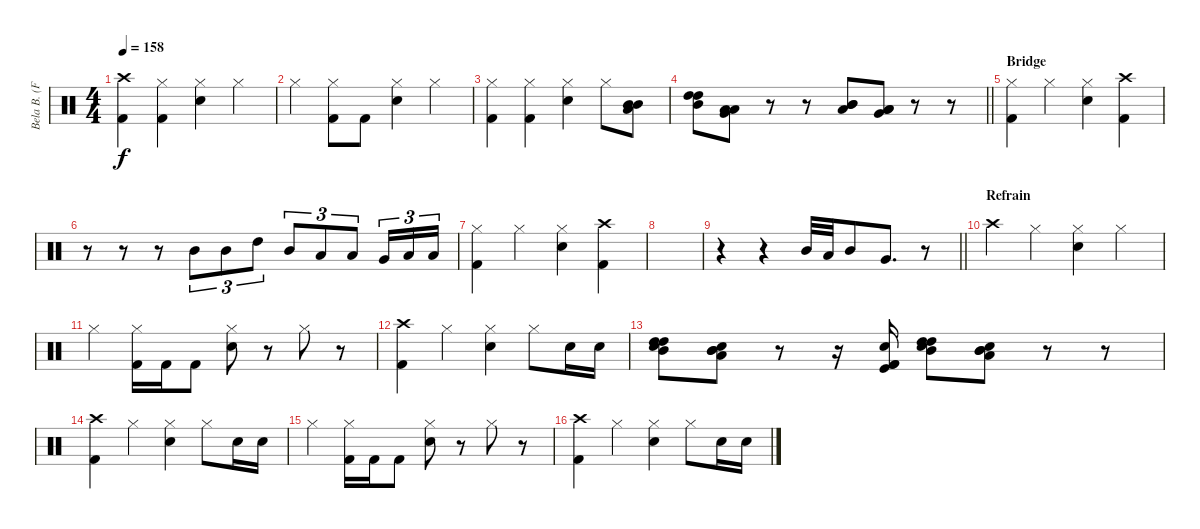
\track ("Bela B. (Felsenheimer)" "Bela B. (F") {instrument percussion}
\staff {score}
\articulation defaults
\ts (4 4)
\tempo 158
\clef neutral
\ks c
("Crash high (hit)" "Kick (hit) 2").4{dy f} ("Hi-Hat (closed)" "Kick (hit) 2").4 ("Hi-Hat (closed)" "Electric Snare (hit)").4 "Hi-Hat (closed)".4 |
"Hi-Hat (closed)".4 ("Kick (hit) 2" "Hi-Hat (closed)").8 "Kick (hit) 2".8 ("Electric Snare (hit)" "Hi-Hat (closed)").4 "Hi-Hat (closed)".4 |
("Hi-Hat (closed)" "Kick (hit) 2").4 ("Hi-Hat (closed)" "Kick (hit) 2").4 ("Hi-Hat (closed)" "Electric Snare (hit)").4 "Hi-Hat (closed)".8 ("Mid Tom (hit)" "Mid Tom (hit)" "Low Tom (hit)").8 |
\barLineRight lightlight
("High Tom (hit)" "High Tom (hit)" "Mid Tom (hit)").8 ("Low Tom (hit)" "Low Tom (hit)" "Very Low Tom (hit)").8 r.8 r.8 ("Mid Tom (hit)" "Mid Tom (hit)" "Low Tom (hit)").8 ("Low Tom (hit)" "Low Tom (hit)" "Very Low Tom (hit)").8 r.8 r.8 |
\section ("" "Bridge")
("Kick (hit) 2" "Hi-Hat (closed)").4 "Hi-Hat (closed)".4 ("Electric Snare (hit)" "Hi-Hat (closed)").4 ("Crash high (hit)" "Kick (hit) 2").4 |
r.8 r.8 r.8 "Mid Tom (hit)".8{tu (3 2)} "Mid Tom (hit)".8{tu (3 2)} "High Tom (hit)".8{tu (3 2)} "Mid Tom (hit)".8{tu (3 2)} "Low Tom (hit)".8{tu (3 2)} "Low Tom (hit)".8{tu (3 2)} "Very Low Tom (hit)".16{tu (3 2)} "Low Floor Tom (hit)".16{tu (3 2)} "Low Floor Tom (hit)".16{tu (3 2)} |
("Kick (hit) 2" "Hi-Hat (closed)").4 "Hi-Hat (closed)".4 ("Electric Snare (hit)" "Hi-Hat (closed)").4 ("Crash high (hit)" "Kick (hit) 2").4 |
|
\barLineRight lightlight
r.4 r.4 "Mid Tom (hit)".32 "Low Tom (hit)".32 "Mid Tom (hit)".8 "Very Low Tom (hit)".8{d} r.8 |
\section ("" "Refrain")
"Crash high (hit)".4 "Hi-Hat (closed)".4 ("Hi-Hat (closed)" "Electric Snare (hit)").4 "Hi-Hat (closed)".4 |
"Hi-Hat (closed)".4 ("Kick (hit) 2" "Hi-Hat (closed)").16 "Kick (hit) 2".16 "Kick (hit) 2".8 ("Snare (hit) 2" "Hi-Hat (closed)").8 r.8 "Hi-Hat (closed)".8 r.8 |
("Crash high (hit)" "Kick (hit) 2").4 "Hi-Hat (closed)".4 ("Hi-Hat (closed)" "Electric Snare (hit)").4 "Hi-Hat (closed)".8 "Electric Snare (hit)".16 "Electric Snare (hit)".16 |
("Mid Tom (hit)" "High Tom (hit)" "Electric Snare (hit)" "High Tom (hit)").8 ("Low Tom (hit)" "Mid Tom (hit)" "Electric Snare (hit)" "Mid Tom (hit)").8 r.8 r.16 ("Kick (hit)" "Kick (hit) 2" "Electric Snare (hit)" "Kick (hit) 2").16 ("Mid Tom (hit)" "High Tom (hit)" "Electric Snare (hit)" "High Tom (hit)").8 ("Low Tom (hit)" "Mid Tom (hit)" "Electric Snare (hit)" "Mid Tom (hit)").8 r.8 r.8 |
("Crash high (hit)" "Kick (hit) 2").4 "Hi-Hat (closed)".4 ("Hi-Hat (closed)" "Electric Snare (hit)").4 "Hi-Hat (closed)".8 "Electric Snare (hit)".16 "Electric Snare (hit)".16 |
"Hi-Hat (closed)".4 ("Kick (hit) 2" "Hi-Hat (closed)").16 "Kick (hit) 2".16 "Kick (hit) 2".8 ("Snare (hit) 2" "Hi-Hat (closed)").8 r.8 "Hi-Hat (closed)".8 r.8 |
("Crash high (hit)" "Kick (hit) 2").4 "Hi-Hat (closed)".4 ("Hi-Hat (closed)" "Electric Snare (hit)").4 "Hi-Hat (closed)".8 "Electric Snare (hit)".16 "Electric Snare (hit)".16
